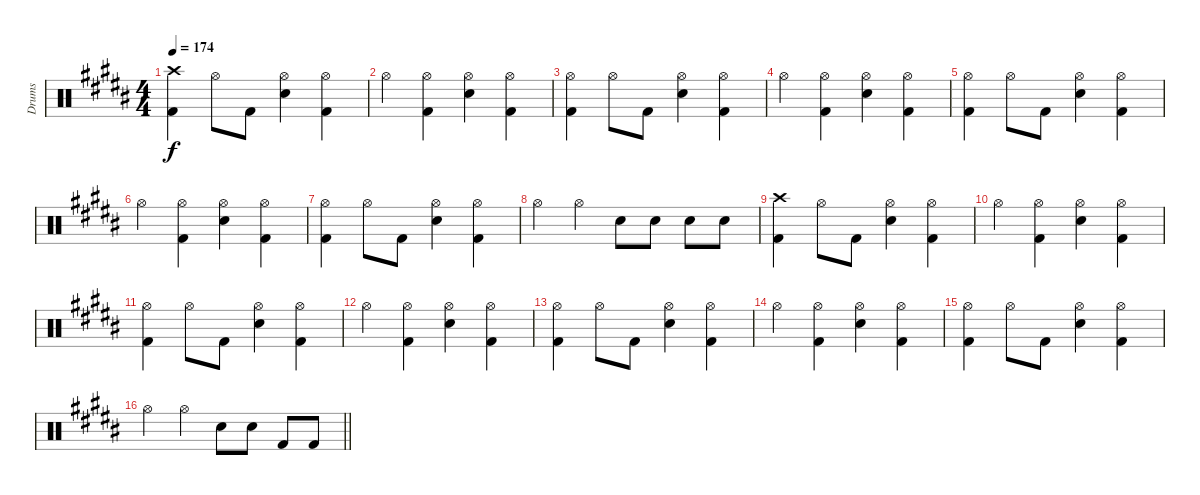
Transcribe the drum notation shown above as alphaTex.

\track ("Drums" "Drums") {instrument percussion}
\staff {score}
\articulation defaults
\ts (4 4)
\tempo 174
\clef neutral
\ks g#minor
("Crash high (hit)" "Kick (hit) 2").4{dy f} "Hi-Hat (open)".8 "Kick (hit) 2".8 ("Hi-Hat (open)" "Electric Snare (hit)").4 ("Hi-Hat (open)" "Kick (hit) 2").4 |
"Hi-Hat (open)".4 ("Hi-Hat (open)" "Kick (hit) 2").4 ("Hi-Hat (open)" "Electric Snare (hit)").4 ("Hi-Hat (open)" "Kick (hit) 2").4 |
("Hi-Hat (open)" "Kick (hit) 2").4 "Hi-Hat (open)".8 "Kick (hit) 2".8 ("Hi-Hat (open)" "Electric Snare (hit)").4 ("Hi-Hat (open)" "Kick (hit) 2").4 |
"Hi-Hat (open)".4 ("Hi-Hat (open)" "Kick (hit) 2").4 ("Hi-Hat (open)" "Electric Snare (hit)").4 ("Hi-Hat (open)" "Kick (hit) 2").4 |
("Hi-Hat (open)" "Kick (hit) 2").4 "Hi-Hat (open)".8 "Kick (hit) 2".8 ("Hi-Hat (open)" "Electric Snare (hit)").4 ("Hi-Hat (open)" "Kick (hit) 2").4 |
"Hi-Hat (open)".4 ("Hi-Hat (open)" "Kick (hit) 2").4 ("Hi-Hat (open)" "Electric Snare (hit)").4 ("Hi-Hat (open)" "Kick (hit) 2").4 |
("Hi-Hat (open)" "Kick (hit) 2").4 "Hi-Hat (open)".8 "Kick (hit) 2".8 ("Hi-Hat (open)" "Electric Snare (hit)").4 ("Hi-Hat (open)" "Kick (hit) 2").4 |
"Hi-Hat (open)".4 "Hi-Hat (open)".4 "Electric Snare (hit)".8 "Electric Snare (hit)".8 "Electric Snare (hit)".8 "Electric Snare (hit)".8 |
("Crash high (hit)" "Kick (hit) 2").4 "Hi-Hat (open)".8 "Kick (hit) 2".8 ("Hi-Hat (open)" "Electric Snare (hit)").4 ("Hi-Hat (open)" "Kick (hit) 2").4 |
"Hi-Hat (open)".4 ("Hi-Hat (open)" "Kick (hit) 2").4 ("Hi-Hat (open)" "Electric Snare (hit)").4 ("Hi-Hat (open)" "Kick (hit) 2").4 |
("Hi-Hat (open)" "Kick (hit) 2").4 "Hi-Hat (open)".8 "Kick (hit) 2".8 ("Hi-Hat (open)" "Electric Snare (hit)").4 ("Hi-Hat (open)" "Kick (hit) 2").4 |
"Hi-Hat (open)".4 ("Hi-Hat (open)" "Kick (hit) 2").4 ("Hi-Hat (open)" "Electric Snare (hit)").4 ("Hi-Hat (open)" "Kick (hit) 2").4 |
("Hi-Hat (open)" "Kick (hit) 2").4 "Hi-Hat (open)".8 "Kick (hit) 2".8 ("Hi-Hat (open)" "Electric Snare (hit)").4 ("Hi-Hat (open)" "Kick (hit) 2").4 |
"Hi-Hat (open)".4 ("Hi-Hat (open)" "Kick (hit) 2").4 ("Hi-Hat (open)" "Electric Snare (hit)").4 ("Hi-Hat (open)" "Kick (hit) 2").4 |
("Hi-Hat (open)" "Kick (hit) 2").4 "Hi-Hat (open)".8 "Kick (hit) 2".8 ("Hi-Hat (open)" "Electric Snare (hit)").4 ("Hi-Hat (open)" "Kick (hit) 2").4 |
\barLineRight lightlight "Hi-Hat (open)".4 "Hi-Hat (open)".4 "Electric Snare (hit)".8 "Electric Snare (hit)".8 "Kick (hit) 2".8 "Kick (hit) 2".8
